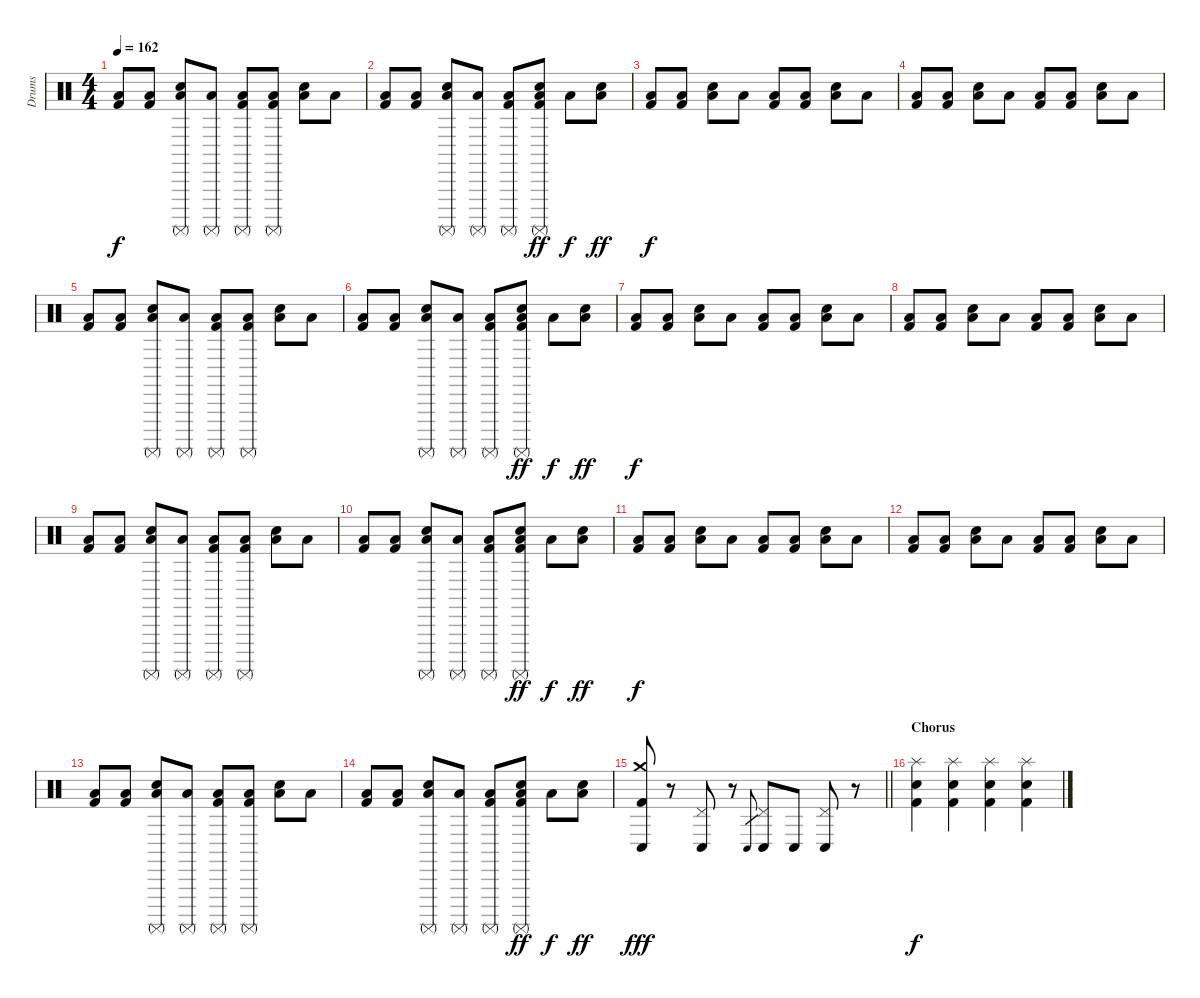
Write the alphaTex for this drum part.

\track ("Drums" "Drums") {instrument percussion}
\staff {score}
\articulation defaults
\ts (4 4)
\tempo 162
\clef neutral
\ks c
("Low Floor Tom (hit)" "Kick (hit) 2").8{dy f} ("Low Floor Tom (hit)" "Kick (hit) 2").8 ("Surdo (mute)" "Electric Snare (hit)" "Low Floor Tom (hit)").8 ("Surdo (mute)" "Low Floor Tom (hit)").8 ("Surdo (mute)" "Low Floor Tom (hit)" "Kick (hit) 2").8 ("Surdo (mute)" "Low Floor Tom (hit)" "Kick (hit) 2").8 ("Electric Snare (hit)" "Low Floor Tom (hit)").8 "Low Floor Tom (hit)".8 |
("Low Floor Tom (hit)" "Kick (hit) 2").8 ("Low Floor Tom (hit)" "Kick (hit) 2").8 ("Surdo (mute)" "Electric Snare (hit)" "Low Floor Tom (hit)").8 ("Surdo (mute)" "Low Floor Tom (hit)").8 ("Surdo (mute)" "Low Floor Tom (hit)" "Kick (hit) 2").8 ("Surdo (mute)" "Electric Snare (hit)" "Low Floor Tom (hit)" "Kick (hit) 2").8{dy ff} "Low Floor Tom (hit)".8{dy f} ("Electric Snare (hit)" "Low Floor Tom (hit)").8{dy ff} |
("Low Floor Tom (hit)" "Kick (hit) 2").8{dy f} ("Low Floor Tom (hit)" "Kick (hit) 2").8 ("Electric Snare (hit)" "Low Floor Tom (hit)").8 "Low Floor Tom (hit)".8 ("Low Floor Tom (hit)" "Kick (hit) 2").8 ("Low Floor Tom (hit)" "Kick (hit) 2").8 ("Electric Snare (hit)" "Low Floor Tom (hit)").8 "Low Floor Tom (hit)".8 |
("Low Floor Tom (hit)" "Kick (hit) 2").8 ("Low Floor Tom (hit)" "Kick (hit) 2").8 ("Electric Snare (hit)" "Low Floor Tom (hit)").8 "Low Floor Tom (hit)".8 ("Low Floor Tom (hit)" "Kick (hit) 2").8 ("Low Floor Tom (hit)" "Kick (hit) 2").8 ("Electric Snare (hit)" "Low Floor Tom (hit)").8 "Low Floor Tom (hit)".8 |
("Low Floor Tom (hit)" "Kick (hit) 2").8 ("Low Floor Tom (hit)" "Kick (hit) 2").8 ("Surdo (mute)" "Electric Snare (hit)" "Low Floor Tom (hit)").8 ("Surdo (mute)" "Low Floor Tom (hit)").8 ("Surdo (mute)" "Low Floor Tom (hit)" "Kick (hit) 2").8 ("Surdo (mute)" "Low Floor Tom (hit)" "Kick (hit) 2").8 ("Electric Snare (hit)" "Low Floor Tom (hit)").8 "Low Floor Tom (hit)".8 |
("Low Floor Tom (hit)" "Kick (hit) 2").8 ("Low Floor Tom (hit)" "Kick (hit) 2").8 ("Surdo (mute)" "Electric Snare (hit)" "Low Floor Tom (hit)").8 ("Surdo (mute)" "Low Floor Tom (hit)").8 ("Surdo (mute)" "Low Floor Tom (hit)" "Kick (hit) 2").8 ("Surdo (mute)" "Electric Snare (hit)" "Low Floor Tom (hit)" "Kick (hit) 2").8{dy ff} "Low Floor Tom (hit)".8{dy f} ("Electric Snare (hit)" "Low Floor Tom (hit)").8{dy ff} |
("Low Floor Tom (hit)" "Kick (hit) 2").8{dy f} ("Low Floor Tom (hit)" "Kick (hit) 2").8 ("Electric Snare (hit)" "Low Floor Tom (hit)").8 "Low Floor Tom (hit)".8 ("Low Floor Tom (hit)" "Kick (hit) 2").8 ("Low Floor Tom (hit)" "Kick (hit) 2").8 ("Electric Snare (hit)" "Low Floor Tom (hit)").8 "Low Floor Tom (hit)".8 |
("Low Floor Tom (hit)" "Kick (hit) 2").8 ("Low Floor Tom (hit)" "Kick (hit) 2").8 ("Electric Snare (hit)" "Low Floor Tom (hit)").8 "Low Floor Tom (hit)".8 ("Low Floor Tom (hit)" "Kick (hit) 2").8 ("Low Floor Tom (hit)" "Kick (hit) 2").8 ("Electric Snare (hit)" "Low Floor Tom (hit)").8 "Low Floor Tom (hit)".8 |
("Low Floor Tom (hit)" "Kick (hit) 2").8 ("Low Floor Tom (hit)" "Kick (hit) 2").8 ("Surdo (mute)" "Electric Snare (hit)" "Low Floor Tom (hit)").8 ("Surdo (mute)" "Low Floor Tom (hit)").8 ("Surdo (mute)" "Low Floor Tom (hit)" "Kick (hit) 2").8 ("Surdo (mute)" "Low Floor Tom (hit)" "Kick (hit) 2").8 ("Electric Snare (hit)" "Low Floor Tom (hit)").8 "Low Floor Tom (hit)".8 |
("Low Floor Tom (hit)" "Kick (hit) 2").8 ("Low Floor Tom (hit)" "Kick (hit) 2").8 ("Surdo (mute)" "Electric Snare (hit)" "Low Floor Tom (hit)").8 ("Surdo (mute)" "Low Floor Tom (hit)").8 ("Surdo (mute)" "Low Floor Tom (hit)" "Kick (hit) 2").8 ("Surdo (mute)" "Electric Snare (hit)" "Low Floor Tom (hit)" "Kick (hit) 2").8{dy ff} "Low Floor Tom (hit)".8{dy f} ("Electric Snare (hit)" "Low Floor Tom (hit)").8{dy ff} |
("Low Floor Tom (hit)" "Kick (hit) 2").8{dy f} ("Low Floor Tom (hit)" "Kick (hit) 2").8 ("Electric Snare (hit)" "Low Floor Tom (hit)").8 "Low Floor Tom (hit)".8 ("Low Floor Tom (hit)" "Kick (hit) 2").8 ("Low Floor Tom (hit)" "Kick (hit) 2").8 ("Electric Snare (hit)" "Low Floor Tom (hit)").8 "Low Floor Tom (hit)".8 |
("Low Floor Tom (hit)" "Kick (hit) 2").8 ("Low Floor Tom (hit)" "Kick (hit) 2").8 ("Electric Snare (hit)" "Low Floor Tom (hit)").8 "Low Floor Tom (hit)".8 ("Low Floor Tom (hit)" "Kick (hit) 2").8 ("Low Floor Tom (hit)" "Kick (hit) 2").8 ("Electric Snare (hit)" "Low Floor Tom (hit)").8 "Low Floor Tom (hit)".8 |
("Low Floor Tom (hit)" "Kick (hit) 2").8 ("Low Floor Tom (hit)" "Kick (hit) 2").8 ("Surdo (mute)" "Electric Snare (hit)" "Low Floor Tom (hit)").8 ("Surdo (mute)" "Low Floor Tom (hit)").8 ("Surdo (mute)" "Low Floor Tom (hit)" "Kick (hit) 2").8 ("Surdo (mute)" "Low Floor Tom (hit)" "Kick (hit) 2").8 ("Electric Snare (hit)" "Low Floor Tom (hit)").8 "Low Floor Tom (hit)".8 |
("Low Floor Tom (hit)" "Kick (hit) 2").8 ("Low Floor Tom (hit)" "Kick (hit) 2").8 ("Surdo (mute)" "Electric Snare (hit)" "Low Floor Tom (hit)").8 ("Surdo (mute)" "Low Floor Tom (hit)").8 ("Surdo (mute)" "Low Floor Tom (hit)" "Kick (hit) 2").8 ("Surdo (mute)" "Electric Snare (hit)" "Low Floor Tom (hit)" "Kick (hit) 2").8{dy ff} "Low Floor Tom (hit)".8{dy f} ("Electric Snare (hit)" "Low Floor Tom (hit)").8{dy ff} |
\barLineRight lightlight
("Crash medium (hit)" "Conga low (hit)" "Kick (hit) 2").8{dy fff} r.8 ("Pedal Hi-Hat (hit)" "Conga low (hit)").8 r.8 "Conga low (hit)".8{gr} ("Pedal Hi-Hat (hit)" "Conga low (hit)").8 "Conga low (hit)".8 ("Pedal Hi-Hat (hit)" "Conga low (hit)").8 r.8 |
\section ("" "Chorus")
("Splash (hit)" "Electric Snare (hit)" "Kick (hit) 2").4{dy f} ("Splash (hit)" "Electric Snare (hit)" "Kick (hit) 2").4 ("Splash (hit)" "Electric Snare (hit)" "Kick (hit) 2").4 ("Splash (hit)" "Electric Snare (hit)" "Kick (hit) 2").4
